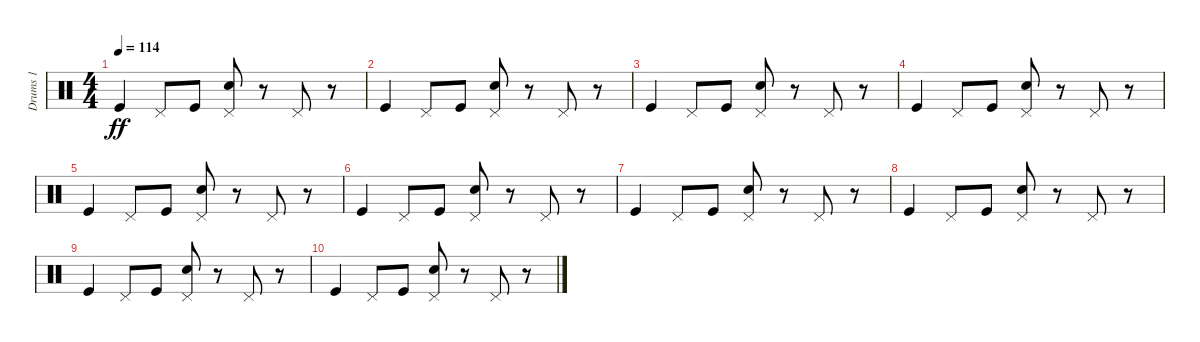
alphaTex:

\track ("Drums 1" "Drums 1") {instrument percussion}
\staff {score}
\articulation defaults
\ts (4 4)
\tempo 114
\clef neutral
\ks c "Kick (hit)".4{dy ff} "Pedal Hi-Hat (hit)".8 "Kick (hit)".8
("Electric Snare (hit)" "Pedal Hi-Hat (hit)").8 r.8 "Pedal Hi-Hat (hit)".8 r.8 |
"Kick (hit)".4 "Pedal Hi-Hat (hit)".8 "Kick (hit)".8 ("Electric Snare (hit)" "Pedal Hi-Hat (hit)").8 r.8 "Pedal Hi-Hat (hit)".8 r.8 |
"Kick (hit)".4 "Pedal Hi-Hat (hit)".8 "Kick (hit)".8 ("Electric Snare (hit)" "Pedal Hi-Hat (hit)").8 r.8 "Pedal Hi-Hat (hit)".8 r.8 |
"Kick (hit)".4 "Pedal Hi-Hat (hit)".8 "Kick (hit)".8 ("Electric Snare (hit)" "Pedal Hi-Hat (hit)").8 r.8 "Pedal Hi-Hat (hit)".8 r.8 |
"Kick (hit)".4 "Pedal Hi-Hat (hit)".8 "Kick (hit)".8 ("Electric Snare (hit)" "Pedal Hi-Hat (hit)").8 r.8 "Pedal Hi-Hat (hit)".8 r.8 |
"Kick (hit)".4 "Pedal Hi-Hat (hit)".8 "Kick (hit)".8 ("Electric Snare (hit)" "Pedal Hi-Hat (hit)").8 r.8 "Pedal Hi-Hat (hit)".8 r.8 |
"Kick (hit)".4 "Pedal Hi-Hat (hit)".8 "Kick (hit)".8 ("Electric Snare (hit)" "Pedal Hi-Hat (hit)").8 r.8 "Pedal Hi-Hat (hit)".8 r.8 |
"Kick (hit)".4 "Pedal Hi-Hat (hit)".8 "Kick (hit)".8 ("Electric Snare (hit)" "Pedal Hi-Hat (hit)").8 r.8 "Pedal Hi-Hat (hit)".8 r.8 |
"Kick (hit)".4 "Pedal Hi-Hat (hit)".8 "Kick (hit)".8 ("Electric Snare (hit)" "Pedal Hi-Hat (hit)").8 r.8 "Pedal Hi-Hat (hit)".8 r.8 |
"Kick (hit)".4 "Pedal Hi-Hat (hit)".8 "Kick (hit)".8 ("Electric Snare (hit)" "Pedal Hi-Hat (hit)").8 r.8 "Pedal Hi-Hat (hit)".8 r.8
